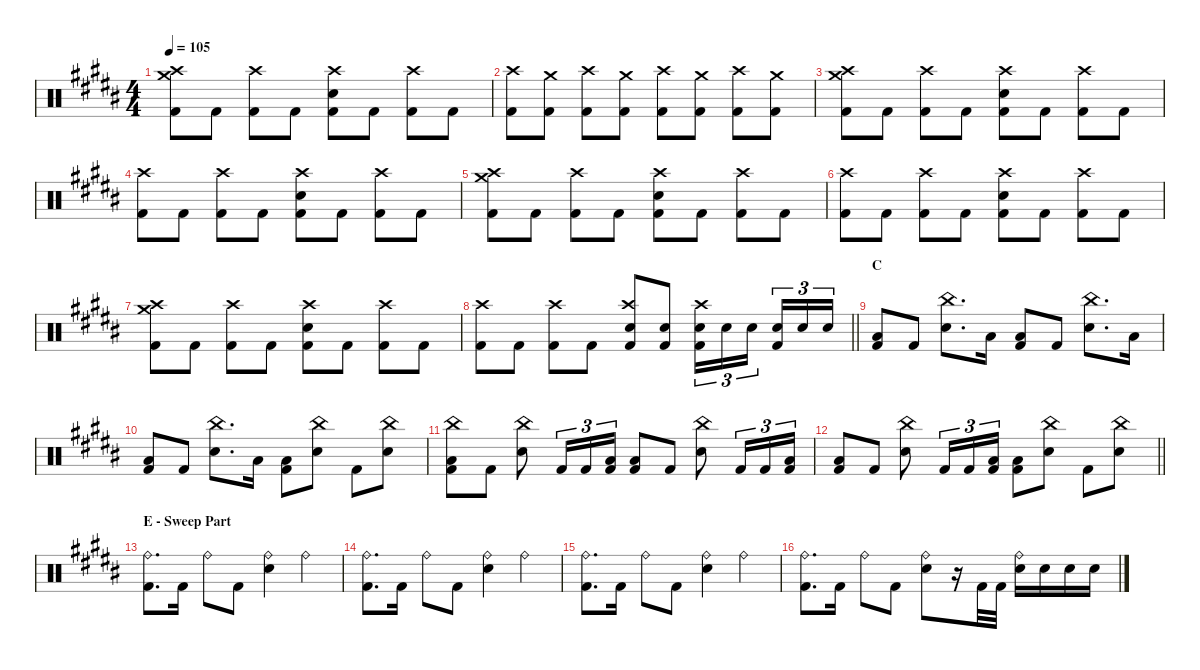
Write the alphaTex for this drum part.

\defaultSystemsLayout 4
\hideDynamics
\bracketExtendMode nobrackets
\singleTrackTrackNamePolicy hidden
\multiTrackTrackNamePolicy hidden
\firstSystemTrackNameMode fullname
\firstSystemTrackNameOrientation horizontal
\otherSystemsTrackNameOrientation horizontal
\track ("Percussions" "drm.") {instrument percussion}
\staff {score}
\articulation defaults
\ts (4 4)
\tempo 105
\clef neutral
\ks b
("Crash medium (hit)"{acc bb} "Crash high (hit)"{acc bb} "Kick (hit) 2"{acc bb}).8{dy f beam Down} "Kick (hit) 2"{acc bb}.8{beam Down} ("Crash high (hit)"{acc bb} "Kick (hit) 2"{acc bb}).8{beam Down} "Kick (hit) 2"{acc bb}.8{beam Down} ("Crash high (hit)"{acc bb} "Snare (hit) 2"{acc bb} "Kick (hit) 2"{acc bb}).8{beam Down} "Kick (hit) 2"{acc bb}.8{beam Down} ("Crash high (hit)"{acc bb} "Kick (hit) 2"{acc bb}).8{beam Down} "Kick (hit) 2"{acc bb}.8{beam Down} |
("Crash high (hit)"{acc bb} "Kick (hit) 2"{acc bb}).8{beam Down} ("Crash medium (hit)"{acc bb} "Kick (hit) 2"{acc bb}).8{beam Down} ("Crash high (hit)"{acc bb} "Kick (hit) 2"{acc bb}).8{beam Down} ("Crash medium (hit)"{acc bb} "Kick (hit) 2"{acc bb}).8{beam Down} ("Crash high (hit)"{acc bb} "Kick (hit) 2"{acc bb}).8{beam Down} ("Crash medium (hit)"{acc bb} "Kick (hit) 2"{acc bb}).8{beam Down} ("Crash high (hit)"{acc bb} "Kick (hit) 2"{acc bb}).8{beam Down} ("Crash medium (hit)"{acc bb} "Kick (hit) 2"{acc bb}).8{beam Down} |
("Crash medium (hit)"{acc bb} "Crash high (hit)"{acc bb} "Kick (hit) 2"{acc bb}).8{beam Down} "Kick (hit) 2"{acc bb}.8{beam Down} ("Crash high (hit)"{acc bb} "Kick (hit) 2"{acc bb}).8{beam Down} "Kick (hit) 2"{acc bb}.8{beam Down} ("Crash high (hit)"{acc bb} "Snare (hit) 2"{acc bb} "Kick (hit) 2"{acc bb}).8{beam Down} "Kick (hit) 2"{acc bb}.8{beam Down} ("Crash high (hit)"{acc bb} "Kick (hit) 2"{acc bb}).8{beam Down} "Kick (hit) 2"{acc bb}.8{beam Down} |
("Crash high (hit)"{acc bb} "Kick (hit) 2"{acc bb}).8{beam Down} "Kick (hit) 2"{acc bb}.8{beam Down} ("Crash high (hit)"{acc bb} "Kick (hit) 2"{acc bb}).8{beam Down} "Kick (hit) 2"{acc bb}.8{beam Down} ("Crash high (hit)"{acc bb} "Snare (hit) 2"{acc bb} "Kick (hit) 2"{acc bb}).8{beam Down} "Kick (hit) 2"{acc bb}.8{beam Down} ("Crash high (hit)"{acc bb} "Kick (hit) 2"{acc bb}).8{beam Down} "Kick (hit) 2"{acc bb}.8{beam Down} |
("Crash medium (hit)"{acc bb} "Crash high (hit)"{acc bb} "Kick (hit) 2"{acc bb}).8{beam Down} "Kick (hit) 2"{acc bb}.8{beam Down} ("Crash high (hit)"{acc bb} "Kick (hit) 2"{acc bb}).8{beam Down} "Kick (hit) 2"{acc bb}.8{beam Down} ("Crash high (hit)"{acc bb} "Snare (hit) 2"{acc bb} "Kick (hit) 2"{acc bb}).8{beam Down} "Kick (hit) 2"{acc bb}.8{beam Down} ("Crash high (hit)"{acc bb} "Kick (hit) 2"{acc bb}).8{beam Down} "Kick (hit) 2"{acc bb}.8{beam Down} |
("Crash high (hit)"{acc bb} "Kick (hit) 2"{acc bb}).8{beam Down} "Kick (hit) 2"{acc bb}.8{beam Down} ("Crash high (hit)"{acc bb} "Kick (hit) 2"{acc bb}).8{beam Down} "Kick (hit) 2"{acc bb}.8{beam Down} ("Crash high (hit)"{acc bb} "Snare (hit) 2"{acc bb} "Kick (hit) 2"{acc bb}).8{beam Down} "Kick (hit) 2"{acc bb}.8{beam Down} ("Crash high (hit)"{acc bb} "Kick (hit) 2"{acc bb}).8{beam Down} "Kick (hit) 2"{acc bb}.8{beam Down} |
("Crash medium (hit)"{acc bb} "Crash high (hit)"{acc bb} "Kick (hit) 2"{acc bb}).8{beam Down} "Kick (hit) 2"{acc bb}.8{beam Down} ("Crash high (hit)"{acc bb} "Kick (hit) 2"{acc bb}).8{beam Down} "Kick (hit) 2"{acc bb}.8{beam Down} ("Crash high (hit)"{acc bb} "Snare (hit) 2"{acc bb} "Kick (hit) 2"{acc bb}).8{beam Down} "Kick (hit) 2"{acc bb}.8{beam Down} ("Crash high (hit)"{acc bb} "Kick (hit) 2"{acc bb}).8{beam Down} "Kick (hit) 2"{acc bb}.8{beam Down} |
\barLineRight lightlight
("Crash high (hit)"{acc bb} "Kick (hit) 2"{acc bb}).8{beam Down} "Kick (hit) 2"{acc bb}.8{beam Down} ("Crash high (hit)"{acc bb} "Kick (hit) 2"{acc bb}).8{beam Down} "Kick (hit) 2"{acc bb}.8{beam Down} ("Crash high (hit)"{acc bb} "Snare (hit) 2"{acc bb} "Kick (hit) 2"{acc bb}).8{beam Up} ("Snare (hit) 2"{acc bb} "Kick (hit) 2"{acc bb}).8{beam Up} ("Crash high (hit)"{acc bb} "Snare (hit) 2"{acc bb} "Kick (hit) 2"{acc bb}).16{tu (3 2) beam Down} "Snare (hit) 2"{acc bb}.16{tu (3 2) beam Down} "Snare (hit) 2"{acc bb}.16{tu (3 2) beam Down} ("Snare (hit) 2"{acc bb} "Kick (hit) 2"{acc bb}).16{tu (3 2) beam Up} "Snare (hit) 2"{acc bb}.16{tu (3 2) beam Up} "Snare (hit) 2"{acc bb}.16{tu (3 2) beam Up} |
\section ("" "C")
("Low Tom (hit)"{acc bb} "Kick (hit) 2"{acc bb}).8{beam Up} "Kick (hit) 2"{acc bb}.8{beam Up} ("China (hit)"{acc bb} "Snare (hit) 2"{acc bb}).8{d beam Down} "Low Tom (hit)"{acc bb}.16{beam Down} ("Low Tom (hit)"{acc bb} "Kick (hit) 2"{acc bb}).8{beam Up} "Kick (hit) 2"{acc bb}.8{beam Up} ("China (hit)"{acc bb} "Snare (hit) 2"{acc bb}).8{d beam Down} "Low Tom (hit)"{acc bb}.16{beam Down} |
("Low Tom (hit)"{acc bb} "Kick (hit) 2"{acc bb}).8{beam Up} "Kick (hit) 2"{acc bb}.8{beam Up} ("China (hit)"{acc bb} "Snare (hit) 2"{acc bb}).8{d beam Down} "Low Tom (hit)"{acc bb}.16{beam Down} ("Low Tom (hit)"{acc bb} "Kick (hit) 2"{acc bb}).8{beam Down} ("China (hit)"{acc bb} "Snare (hit) 2"{acc bb}).8{beam Down} "Kick (hit) 2"{acc bb}.8{beam Down} ("China (hit)"{acc bb} "Snare (hit) 2"{acc bb}).8{beam Down} |
("China (hit)"{acc bb} "Low Tom (hit)"{acc bb} "Kick (hit) 2"{acc bb}).8{beam Down} "Kick (hit) 2"{acc bb}.8{beam Down} ("China (hit)"{acc bb} "Snare (hit) 2"{acc bb}).8{beam Down} "Kick (hit) 2"{acc bb}.16{tu (3 2) dy fff beam Up} "Kick (hit) 2"{acc bb}.16{tu (3 2) beam Up} ("Low Tom (hit)"{acc bb} "Kick (hit) 2"{acc bb}).16{tu (3 2) dy f beam Up} ("Low Tom (hit)"{acc bb} "Kick (hit) 2"{acc bb}).8{beam Up} "Kick (hit) 2"{acc bb}.8{beam Up} ("China (hit)"{acc bb} "Snare (hit) 2"{acc bb}).8{beam Down} "Kick (hit) 2"{acc bb}.16{tu (3 2) dy fff beam Up} "Kick (hit) 2"{acc bb}.16{tu (3 2) beam Up} ("Low Tom (hit)"{acc bb} "Kick (hit) 2"{acc bb}).16{tu (3 2) dy f beam Up} |
\barLineRight lightlight
("Low Tom (hit)"{acc bb} "Kick (hit) 2"{acc bb}).8{beam Up} "Kick (hit) 2"{acc bb}.8{dy fff beam Up} ("China (hit)"{acc bb} "Snare (hit) 2"{acc bb}).8{dy f beam Down} "Kick (hit) 2"{acc bb}.16{tu (3 2) dy fff beam Up} "Kick (hit) 2"{acc bb}.16{tu (3 2) beam Up} ("Low Tom (hit)"{acc bb} "Kick (hit) 2"{acc bb}).16{tu (3 2) dy f beam Up} ("Low Tom (hit)"{acc bb} "Kick (hit) 2"{acc bb}).8{beam Down} ("China (hit)"{acc bb} "Snare (hit) 2"{acc bb}).8{beam Down} "Kick (hit) 2"{acc bb}.8{beam Down} ("China (hit)"{acc bb} "Snare (hit) 2"{acc bb}).8{beam Down} |
\section ("" "E - Sweep Part")
("Ride (bell)"{acc bb} "Kick (hit) 2"{acc bb}).8{d dy fff beam Down} "Kick (hit) 2"{acc bb}.16{beam Down} "Ride (bell)"{acc bb}.8{beam Down} "Kick (hit) 2"{acc bb}.8{beam Down} ("Ride (bell)"{acc bb} "Snare (hit) 2"{acc bb}).4{beam Down} "Ride (bell)"{acc bb}.4{beam Down} |
("Ride (bell)"{acc bb} "Kick (hit) 2"{acc bb}).8{d beam Down} "Kick (hit) 2"{acc bb}.16{beam Down} "Ride (bell)"{acc bb}.8{beam Down} "Kick (hit) 2"{acc bb}.8{beam Down} ("Ride (bell)"{acc bb} "Snare (hit) 2"{acc bb}).4{beam Down} "Ride (bell)"{acc bb}.4{beam Down} |
("Ride (bell)"{acc bb} "Kick (hit) 2"{acc bb}).8{d beam Down} "Kick (hit) 2"{acc bb}.16{beam Down} "Ride (bell)"{acc bb}.8{beam Down} "Kick (hit) 2"{acc bb}.8{beam Down} ("Ride (bell)"{acc bb} "Snare (hit) 2"{acc bb}).4{beam Down} "Ride (bell)"{acc bb}.4{beam Down} |
("Ride (bell)"{acc bb} "Kick (hit) 2"{acc bb}).8{d beam Down} "Kick (hit) 2"{acc bb}.16{beam Down} "Ride (bell)"{acc bb}.8{beam Down} "Kick (hit) 2"{acc bb}.8{beam Down} ("Ride (bell)"{acc bb} "Snare (hit) 2"{acc bb}).8{beam Down} r.16{beam Down} "Kick (hit) 2"{acc bb}.32{beam Down} "Kick (hit) 2"{acc bb}.32{beam Down} ("Ride (bell)"{acc bb} "Snare (hit) 2"{acc bb}).16{beam Down} "Snare (hit) 2"{acc bb}.16{beam Down} "Snare (hit) 2"{acc bb}.16{beam Down} "Snare (hit) 2"{acc bb}.16{beam Down}
